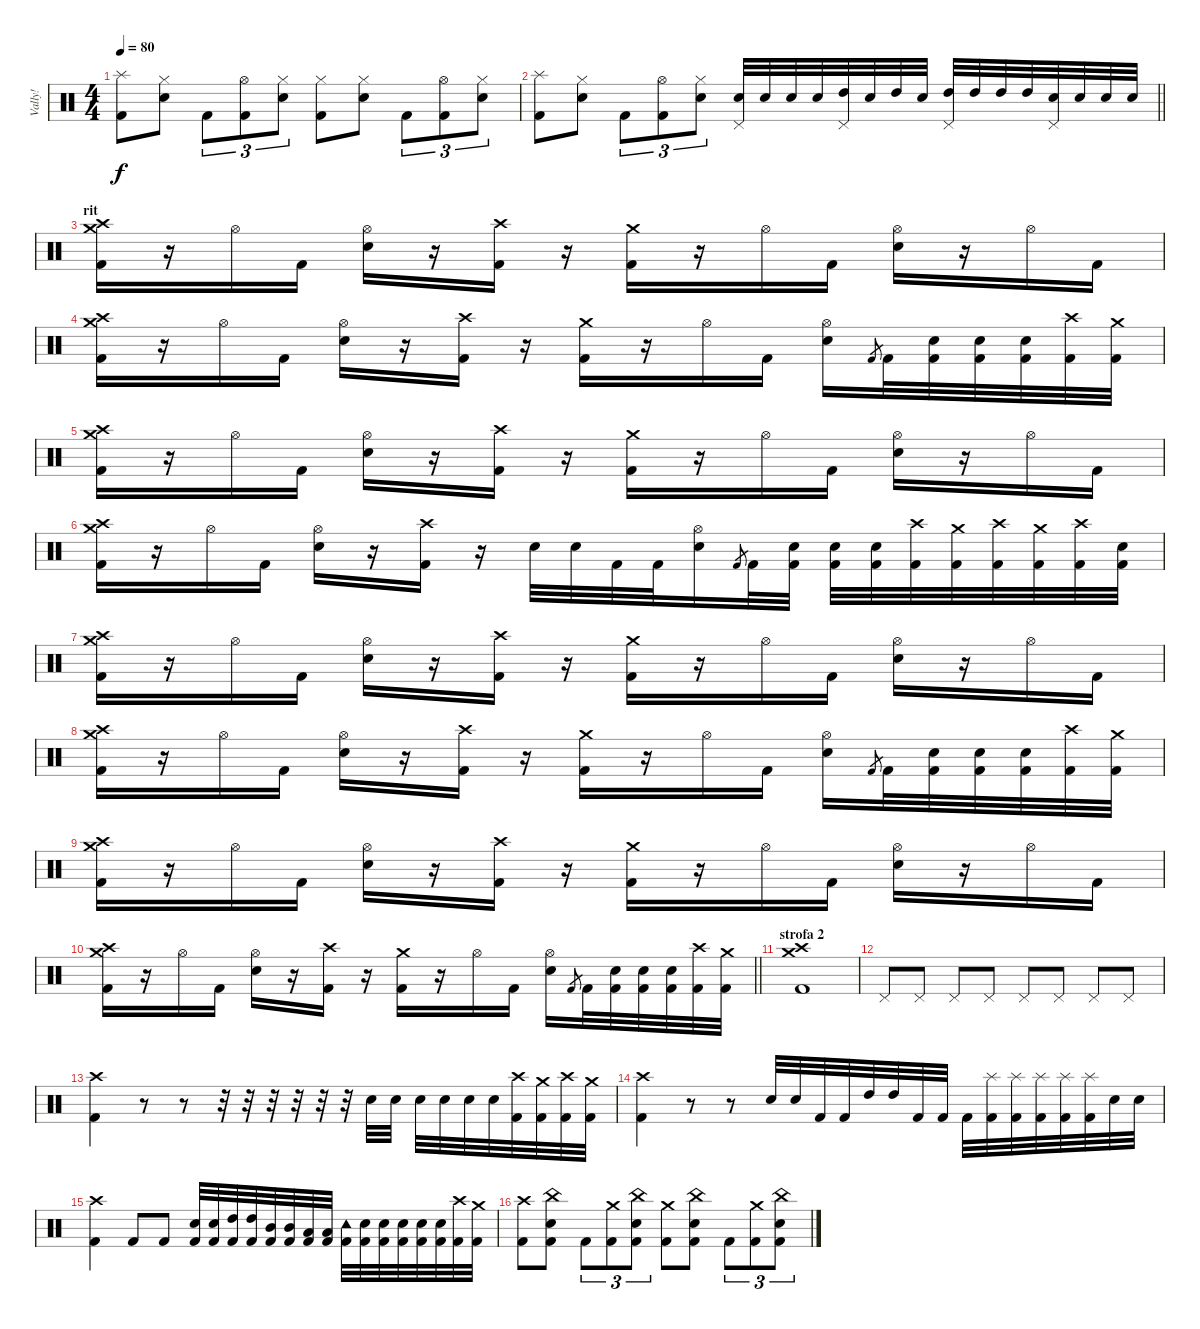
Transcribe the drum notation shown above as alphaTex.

\track ("Vally!" "Vally!") {instrument percussion}
\staff {score}
\articulation defaults
\ts (4 4)
\tempo 80
\clef neutral
\ks c
("Splash (hit)" "Kick (hit) 2").8{dy f} ("Hi-Hat (closed)" "Electric Snare (hit)").8 "Kick (hit) 2".8{tu (3 2)} ("Hi-Hat (open)" "Kick (hit) 2").8{tu (3 2)} ("Hi-Hat (closed)" "Electric Snare (hit)").8{tu (3 2)} ("Hi-Hat (closed)" "Kick (hit) 2").8 ("Hi-Hat (closed)" "Electric Snare (hit)").8 "Kick (hit) 2".8{tu (3 2)} ("Hi-Hat (open)" "Kick (hit) 2").8{tu (3 2)} ("Hi-Hat (closed)" "Electric Snare (hit)").8{tu (3 2)} |
\barLineRight lightlight
("Splash (hit)" "Kick (hit) 2").8 ("Hi-Hat (closed)" "Electric Snare (hit)").8 "Kick (hit) 2".8{tu (3 2)} ("Hi-Hat (open)" "Kick (hit) 2").8{tu (3 2)} ("Hi-Hat (closed)" "Electric Snare (hit)").8{tu (3 2)} ("Electric Snare (hit)" "Pedal Hi-Hat (hit)").32 "Electric Snare (hit)".32 "Electric Snare (hit)".32 "Electric Snare (hit)".32 ("High Tom (hit)" "Pedal Hi-Hat (hit)").32 "Electric Snare (hit)".32 "High Tom (hit)".32 "Electric Snare (hit)".32 ("High Tom (hit)" "Pedal Hi-Hat (hit)").32 "High Tom (hit)".32 "High Tom (hit)".32 "High Tom (hit)".32 ("Electric Snare (hit)" "Pedal Hi-Hat (hit)").32 "Electric Snare (hit)".32 "Electric Snare (hit)".32 "Electric Snare (hit)".32 |
\section ("" "rit")
("Crash high (hit)" "Crash medium (hit)" "Kick (hit) 2").16 r.16 "Hi-Hat (open)".16 "Kick (hit) 2".16 ("Hi-Hat (open)" "Electric Snare (hit)").16 r.16 ("Crash high (hit)" "Kick (hit) 2").16 r.16 ("Crash medium (hit)" "Kick (hit) 2").16 r.16 "Hi-Hat (open)".16 "Kick (hit) 2".16 ("Hi-Hat (open)" "Electric Snare (hit)").16 r.16 "Hi-Hat (open)".16 "Kick (hit) 2".16 |
("Crash high (hit)" "Crash medium (hit)" "Kick (hit) 2").16 r.16 "Hi-Hat (open)".16 "Kick (hit) 2".16 ("Hi-Hat (open)" "Electric Snare (hit)").16 r.16 ("Crash high (hit)" "Kick (hit) 2").16 r.16 ("Crash medium (hit)" "Kick (hit) 2").16 r.16 "Hi-Hat (open)".16 "Kick (hit) 2".16 ("Hi-Hat (open)" "Electric Snare (hit)").16 "Kick (hit) 2".8{gr} "Kick (hit) 2".32 ("Electric Snare (hit)" "Kick (hit) 2").32 ("Electric Snare (hit)" "Kick (hit) 2").32 ("Electric Snare (hit)" "Kick (hit) 2").32 ("Crash high (hit)" "Kick (hit) 2").32 ("Crash medium (hit)" "Kick (hit) 2").32 |
("Crash high (hit)" "Crash medium (hit)" "Kick (hit) 2").16 r.16 "Hi-Hat (open)".16 "Kick (hit) 2".16 ("Hi-Hat (open)" "Electric Snare (hit)").16 r.16 ("Crash high (hit)" "Kick (hit) 2").16 r.16 ("Crash medium (hit)" "Kick (hit) 2").16 r.16 "Hi-Hat (open)".16 "Kick (hit) 2".16 ("Hi-Hat (open)" "Electric Snare (hit)").16 r.16 "Hi-Hat (open)".16 "Kick (hit) 2".16 |
("Crash high (hit)" "Crash medium (hit)" "Kick (hit) 2").16 r.16 "Hi-Hat (open)".16 "Kick (hit) 2".16 ("Hi-Hat (open)" "Electric Snare (hit)").16 r.16 ("Crash high (hit)" "Kick (hit) 2").16 r.16 "Electric Snare (hit)".32 "Electric Snare (hit)".32 "Kick (hit) 2".32 "Kick (hit) 2".32 ("Hi-Hat (open)" "Electric Snare (hit)").16 "Kick (hit) 2".8{gr} "Kick (hit) 2".32 ("Electric Snare (hit)" "Kick (hit) 2").32 ("Electric Snare (hit)" "Kick (hit) 2").32 ("Electric Snare (hit)" "Kick (hit) 2").32 ("Crash high (hit)" "Kick (hit) 2").32 ("Crash medium (hit)" "Kick (hit) 2").32 ("Crash high (hit)" "Kick (hit) 2").32 ("Crash medium (hit)" "Kick (hit) 2").32 ("Crash high (hit)" "Kick (hit) 2").32 ("Electric Snare (hit)" "Kick (hit) 2").32 |
("Crash high (hit)" "Crash medium (hit)" "Kick (hit) 2").16 r.16 "Hi-Hat (open)".16 "Kick (hit) 2".16 ("Hi-Hat (open)" "Electric Snare (hit)").16 r.16 ("Crash high (hit)" "Kick (hit) 2").16 r.16 ("Crash medium (hit)" "Kick (hit) 2").16 r.16 "Hi-Hat (open)".16 "Kick (hit) 2".16 ("Hi-Hat (open)" "Electric Snare (hit)").16 r.16 "Hi-Hat (open)".16 "Kick (hit) 2".16 |
("Crash high (hit)" "Crash medium (hit)" "Kick (hit) 2").16 r.16 "Hi-Hat (open)".16 "Kick (hit) 2".16 ("Hi-Hat (open)" "Electric Snare (hit)").16 r.16 ("Crash high (hit)" "Kick (hit) 2").16 r.16 ("Crash medium (hit)" "Kick (hit) 2").16 r.16 "Hi-Hat (open)".16 "Kick (hit) 2".16 ("Hi-Hat (open)" "Electric Snare (hit)").16 "Kick (hit) 2".8{gr} "Kick (hit) 2".32 ("Electric Snare (hit)" "Kick (hit) 2").32 ("Electric Snare (hit)" "Kick (hit) 2").32 ("Electric Snare (hit)" "Kick (hit) 2").32 ("Crash high (hit)" "Kick (hit) 2").32 ("Crash medium (hit)" "Kick (hit) 2").32 |
("Crash high (hit)" "Crash medium (hit)" "Kick (hit) 2").16 r.16 "Hi-Hat (open)".16 "Kick (hit) 2".16 ("Hi-Hat (open)" "Electric Snare (hit)").16 r.16 ("Crash high (hit)" "Kick (hit) 2").16 r.16 ("Crash medium (hit)" "Kick (hit) 2").16 r.16 "Hi-Hat (open)".16 "Kick (hit) 2".16 ("Hi-Hat (open)" "Electric Snare (hit)").16 r.16 "Hi-Hat (open)".16 "Kick (hit) 2".16 |
\barLineRight lightlight
("Crash high (hit)" "Crash medium (hit)" "Kick (hit) 2").16 r.16 "Hi-Hat (open)".16 "Kick (hit) 2".16 ("Hi-Hat (open)" "Electric Snare (hit)").16 r.16 ("Crash high (hit)" "Kick (hit) 2").16 r.16 ("Crash medium (hit)" "Kick (hit) 2").16 r.16 "Hi-Hat (open)".16 "Kick (hit) 2".16 ("Hi-Hat (open)" "Electric Snare (hit)").16 "Kick (hit) 2".8{gr} "Kick (hit) 2".32 ("Electric Snare (hit)" "Kick (hit) 2").32 ("Electric Snare (hit)" "Kick (hit) 2").32 ("Electric Snare (hit)" "Kick (hit) 2").32 ("Crash high (hit)" "Kick (hit) 2").32 ("Crash medium (hit)" "Kick (hit) 2").32 |
\section ("" "strofa 2")
("Crash high (hit)" "Crash medium (hit)" "Kick (hit) 2").1 |
"Pedal Hi-Hat (hit)".8 "Pedal Hi-Hat (hit)".8 "Pedal Hi-Hat (hit)".8 "Pedal Hi-Hat (hit)".8 "Pedal Hi-Hat (hit)".8 "Pedal Hi-Hat (hit)".8 "Pedal Hi-Hat (hit)".8 "Pedal Hi-Hat (hit)".8 |
("Crash high (hit)" "Kick (hit) 2").4 r.8 r.8 r.32 r.32 r.32 r.32 r.32 r.32 "Electric Snare (hit)".32 "Electric Snare (hit)".32 "Electric Snare (hit)".32 "Electric Snare (hit)".32 "Electric Snare (hit)".32 "Electric Snare (hit)".32 ("Crash high (hit)" "Kick (hit) 2").32 ("Crash medium (hit)" "Kick (hit) 2").32 ("Crash high (hit)" "Kick (hit) 2").32 ("Crash medium (hit)" "Kick (hit) 2").32 |
("Crash high (hit)" "Kick (hit) 2").4 r.8 r.8 "Electric Snare (hit)".32 "Electric Snare (hit)".32 "Kick (hit) 2".32 "Kick (hit) 2".32 "High Tom (hit)".32 "High Tom (hit)".32 "Kick (hit) 2".32 "Kick (hit) 2".32 "Kick (hit) 2".32 ("Splash (hit)" "Kick (hit) 2").32 ("Splash (hit)" "Kick (hit) 2").32 ("Splash (hit)" "Kick (hit) 2").32 ("Splash (hit)" "Kick (hit) 2").32 ("Splash (hit)" "Kick (hit) 2").32 "Electric Snare (hit)".32 "Electric Snare (hit)".32 |
("Crash high (hit)" "Kick (hit) 2").4 "Kick (hit) 2".8 "Kick (hit) 2".8 ("Electric Snare (hit)" "Kick (hit) 2").32 ("Electric Snare (hit)" "Kick (hit) 2").32 ("High Tom (hit)" "Kick (hit) 2").32 ("High Tom (hit)" "Kick (hit) 2").32 ("Mid Tom (hit)" "Kick (hit) 2").32 ("Mid Tom (hit)" "Kick (hit) 2").32 ("Low Tom (hit)" "Kick (hit) 2").32 ("Low Tom (hit)" "Kick (hit) 2").32 ("Tambourine (hit)" "Kick (hit) 2").32 ("Electric Snare (hit)" "Kick (hit) 2").32 ("Electric Snare (hit)" "Kick (hit) 2").32 ("Electric Snare (hit)" "Kick (hit) 2").32 ("Electric Snare (hit)" "Kick (hit) 2").32 ("Electric Snare (hit)" "Kick (hit) 2").32 ("Crash high (hit)" "Kick (hit) 2").32 ("Crash medium (hit)" "Kick (hit) 2").32 |
("Crash high (hit)" "Kick (hit) 2").8 ("China (hit)" "Electric Snare (hit)" "Kick (hit) 2").8 "Kick (hit) 2".8{tu (3 2)} ("Crash medium (hit)" "Kick (hit) 2").8{tu (3 2)} ("China (hit)" "Electric Snare (hit)" "Kick (hit) 2").8{tu (3 2)} ("Crash medium (hit)" "Kick (hit) 2").8 ("China (hit)" "Electric Snare (hit)" "Kick (hit) 2").8 "Kick (hit) 2".8{tu (3 2)} ("Crash medium (hit)" "Kick (hit) 2").8{tu (3 2)} ("China (hit)" "Electric Snare (hit)" "Kick (hit) 2").8{tu (3 2)}
